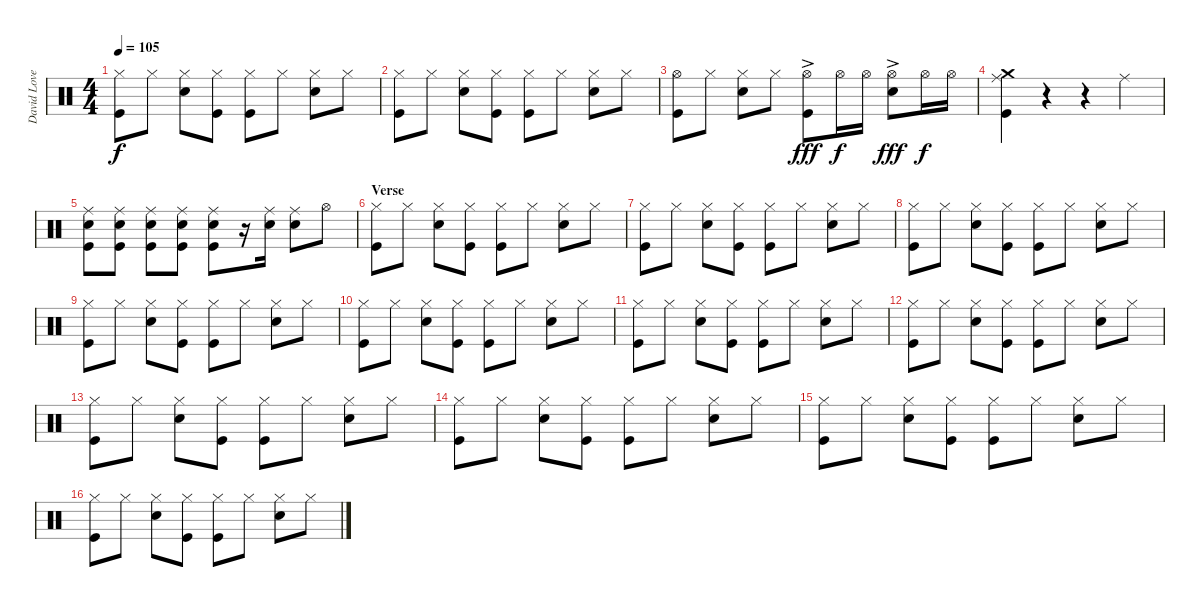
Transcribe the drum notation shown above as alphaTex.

\track ("David Lovering" "David Love") {instrument percussion}
\staff {score}
\articulation defaults
\ts (4 4)
\tempo 105
\clef neutral
\ks c
("Hi-Hat (closed)" "Kick (hit)").8{dy f} "Hi-Hat (closed)".8 ("Hi-Hat (closed)" "Snare (hit) 2").8 ("Hi-Hat (closed)" "Kick (hit)").8 ("Hi-Hat (closed)" "Kick (hit)").8 "Hi-Hat (closed)".8 ("Hi-Hat (closed)" "Snare (hit) 2").8 "Hi-Hat (closed)".8 |
("Hi-Hat (closed)" "Kick (hit)").8 "Hi-Hat (closed)".8 ("Hi-Hat (closed)" "Snare (hit) 2").8 ("Hi-Hat (closed)" "Kick (hit)").8 ("Hi-Hat (closed)" "Kick (hit)").8 "Hi-Hat (closed)".8 ("Hi-Hat (closed)" "Snare (hit) 2").8 "Hi-Hat (closed)".8 |
("Hi-Hat (open)" "Kick (hit)").8 "Hi-Hat (closed)".8 ("Hi-Hat (closed)" "Snare (hit) 2").8 "Hi-Hat (closed)".8 ("Hi-Hat (open)" "Kick (hit)"{ac}).8{dy fff} "Hi-Hat (open)".16{dy f} "Hi-Hat (open)".16 ("Hi-Hat (open)" "Snare (hit) 2"{ac}).8{dy fff} "Hi-Hat (open)".16{dy f} "Hi-Hat (open)".16 |
("Ride (middle)" "Crash medium (hit)" "Kick (hit)").4 r.4 r.4 "Ride (middle)".4 |
("Ride (middle)" "Snare (hit) 2" "Kick (hit)").8{volume 9} ("Ride (middle)" "Snare (hit) 2" "Kick (hit)").8 ("Ride (middle)" "Snare (hit) 2" "Kick (hit)").8{volume 13} ("Ride (middle)" "Snare (hit) 2" "Kick (hit)").8 ("Ride (middle)" "Snare (hit) 2" "Kick (hit)").8 r.16 ("Ride (middle)" "Snare (hit) 2").16 ("Ride (middle)" "Snare (hit) 2").8 "Hi-Hat (open)".8 |
\section ("" "Verse")
("Hi-Hat (closed)" "Kick (hit)").8 "Hi-Hat (closed)".8 ("Hi-Hat (closed)" "Snare (hit) 2").8 ("Hi-Hat (closed)" "Kick (hit)").8 ("Hi-Hat (closed)" "Kick (hit)").8 "Hi-Hat (closed)".8 ("Hi-Hat (closed)" "Snare (hit) 2").8 "Hi-Hat (closed)".8 |
("Hi-Hat (closed)" "Kick (hit)").8 "Hi-Hat (closed)".8 ("Hi-Hat (closed)" "Snare (hit) 2").8 ("Hi-Hat (closed)" "Kick (hit)").8 ("Hi-Hat (closed)" "Kick (hit)").8 "Hi-Hat (closed)".8 ("Hi-Hat (closed)" "Snare (hit) 2").8 "Hi-Hat (closed)".8 |
("Hi-Hat (closed)" "Kick (hit)").8 "Hi-Hat (closed)".8 ("Hi-Hat (closed)" "Snare (hit) 2").8 ("Hi-Hat (closed)" "Kick (hit)").8 ("Hi-Hat (closed)" "Kick (hit)").8 "Hi-Hat (closed)".8 ("Hi-Hat (closed)" "Snare (hit) 2").8 "Hi-Hat (closed)".8 |
("Hi-Hat (closed)" "Kick (hit)").8 "Hi-Hat (closed)".8 ("Hi-Hat (closed)" "Snare (hit) 2").8 ("Hi-Hat (closed)" "Kick (hit)").8 ("Hi-Hat (closed)" "Kick (hit)").8 "Hi-Hat (closed)".8 ("Hi-Hat (closed)" "Snare (hit) 2").8 "Hi-Hat (closed)".8 |
("Hi-Hat (closed)" "Kick (hit)").8 "Hi-Hat (closed)".8 ("Hi-Hat (closed)" "Snare (hit) 2").8 ("Hi-Hat (closed)" "Kick (hit)").8 ("Hi-Hat (closed)" "Kick (hit)").8 "Hi-Hat (closed)".8 ("Hi-Hat (closed)" "Snare (hit) 2").8 "Hi-Hat (closed)".8 |
("Hi-Hat (closed)" "Kick (hit)").8 "Hi-Hat (closed)".8 ("Hi-Hat (closed)" "Snare (hit) 2").8 ("Hi-Hat (closed)" "Kick (hit)").8 ("Hi-Hat (closed)" "Kick (hit)").8 "Hi-Hat (closed)".8 ("Hi-Hat (closed)" "Snare (hit) 2").8 "Hi-Hat (closed)".8 |
("Hi-Hat (closed)" "Kick (hit)").8 "Hi-Hat (closed)".8 ("Hi-Hat (closed)" "Snare (hit) 2").8 ("Hi-Hat (closed)" "Kick (hit)").8 ("Hi-Hat (closed)" "Kick (hit)").8 "Hi-Hat (closed)".8 ("Hi-Hat (closed)" "Snare (hit) 2").8 "Hi-Hat (closed)".8 |
("Hi-Hat (closed)" "Kick (hit)").8 "Hi-Hat (closed)".8 ("Hi-Hat (closed)" "Snare (hit) 2").8 ("Hi-Hat (closed)" "Kick (hit)").8 ("Hi-Hat (closed)" "Kick (hit)").8 "Hi-Hat (closed)".8 ("Hi-Hat (closed)" "Snare (hit) 2").8 "Hi-Hat (closed)".8 |
("Hi-Hat (closed)" "Kick (hit)").8 "Hi-Hat (closed)".8 ("Hi-Hat (closed)" "Snare (hit) 2").8 ("Hi-Hat (closed)" "Kick (hit)").8 ("Hi-Hat (closed)" "Kick (hit)").8 "Hi-Hat (closed)".8 ("Hi-Hat (closed)" "Snare (hit) 2").8 "Hi-Hat (closed)".8 |
("Hi-Hat (closed)" "Kick (hit)").8 "Hi-Hat (closed)".8 ("Hi-Hat (closed)" "Snare (hit) 2").8 ("Hi-Hat (closed)" "Kick (hit)").8 ("Hi-Hat (closed)" "Kick (hit)").8 "Hi-Hat (closed)".8 ("Hi-Hat (closed)" "Snare (hit) 2").8 "Hi-Hat (closed)".8 |
("Hi-Hat (closed)" "Kick (hit)").8 "Hi-Hat (closed)".8 ("Hi-Hat (closed)" "Snare (hit) 2").8 ("Hi-Hat (closed)" "Kick (hit)").8 ("Hi-Hat (closed)" "Kick (hit)").8 "Hi-Hat (closed)".8 ("Hi-Hat (closed)" "Snare (hit) 2").8 "Hi-Hat (closed)".8
